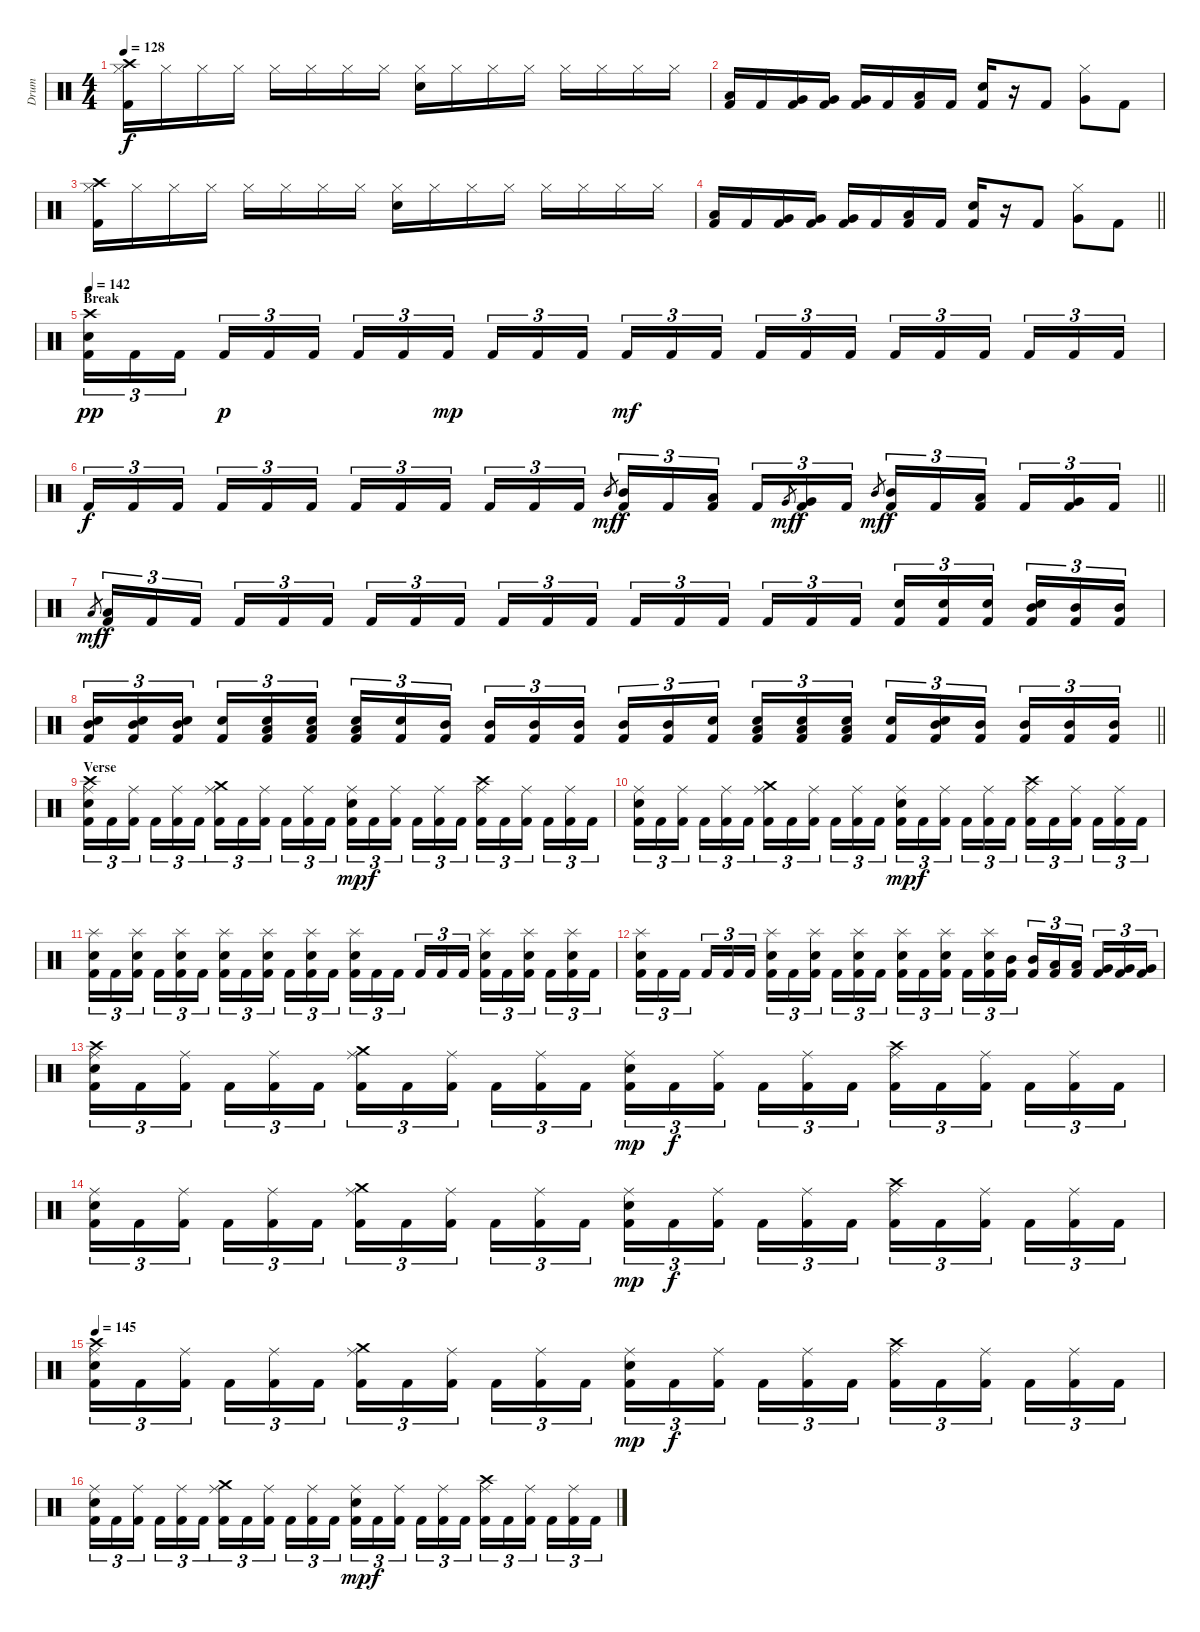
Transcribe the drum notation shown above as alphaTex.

\track ("Drum" "Drum") {instrument percussion}
\staff {score}
\articulation defaults
\ts (4 4)
\tempo 128
\clef neutral
\ks c
("Crash high (hit)" "Hi-Hat (closed)" "Kick (hit) 2").16{dy f} "Hi-Hat (closed)".16 "Hi-Hat (closed)".16 "Hi-Hat (closed)".16 "Hi-Hat (closed)".16 "Hi-Hat (closed)".16 "Hi-Hat (closed)".16 "Hi-Hat (closed)".16 ("Hi-Hat (closed)" "Electric Snare (hit)").16 "Hi-Hat (closed)".16 "Hi-Hat (closed)".16 "Hi-Hat (closed)".16 "Hi-Hat (closed)".16 "Hi-Hat (closed)".16 "Hi-Hat (closed)".16 "Hi-Hat (closed)".16 |
("Low Tom (hit)" "Kick (hit) 2").16 "Kick (hit) 2".16 ("Very Low Tom (hit)" "Kick (hit) 2").16 ("Very Low Tom (hit)" "Kick (hit) 2").16 ("Very Low Tom (hit)" "Kick (hit) 2").16 "Kick (hit) 2".16 ("Low Floor Tom (hit)" "Kick (hit) 2").16 "Kick (hit) 2".16 ("Electric Snare (hit)" "Kick (hit) 2").16 r.16 "Kick (hit) 2".8 ("Hi-Hat (closed)" "Very Low Tom (hit)").8 "Kick (hit) 2".8 |
("Crash high (hit)" "Hi-Hat (closed)" "Kick (hit) 2").16 "Hi-Hat (closed)".16 "Hi-Hat (closed)".16 "Hi-Hat (closed)".16 "Hi-Hat (closed)".16 "Hi-Hat (closed)".16 "Hi-Hat (closed)".16 "Hi-Hat (closed)".16 ("Hi-Hat (closed)" "Electric Snare (hit)").16 "Hi-Hat (closed)".16 "Hi-Hat (closed)".16 "Hi-Hat (closed)".16 "Hi-Hat (closed)".16 "Hi-Hat (closed)".16 "Hi-Hat (closed)".16 "Hi-Hat (closed)".16 |
\barLineRight lightlight
("Low Tom (hit)" "Kick (hit) 2").16 "Kick (hit) 2".16 ("Very Low Tom (hit)" "Kick (hit) 2").16 ("Very Low Tom (hit)" "Kick (hit) 2").16 ("Very Low Tom (hit)" "Kick (hit) 2").16 "Kick (hit) 2".16 ("Low Floor Tom (hit)" "Kick (hit) 2").16 "Kick (hit) 2".16 ("Electric Snare (hit)" "Kick (hit) 2").16 r.16 "Kick (hit) 2".8 ("Hi-Hat (closed)" "Very Low Tom (hit)").8 "Kick (hit) 2".8 |
\section ("" "Break")
\tempo 142
("Crash high (hit)" "Electric Snare (hit)" "Kick (hit) 2").16{tu (3 2) dy pp} "Kick (hit) 2".16{tu (3 2)} "Kick (hit) 2".16{tu (3 2) beam splitsecondary} "Kick (hit) 2".16{tu (3 2) dy p} "Kick (hit) 2".16{tu (3 2)} "Kick (hit) 2".16{tu (3 2)} "Kick (hit) 2".16{tu (3 2)} "Kick (hit) 2".16{tu (3 2)} "Kick (hit) 2".16{tu (3 2) dy mp beam splitsecondary} "Kick (hit) 2".16{tu (3 2)} "Kick (hit) 2".16{tu (3 2)} "Kick (hit) 2".16{tu (3 2)} "Kick (hit) 2".16{tu (3 2) dy mf} "Kick (hit) 2".16{tu (3 2)} "Kick (hit) 2".16{tu (3 2) beam splitsecondary} "Kick (hit) 2".16{tu (3 2)} "Kick (hit) 2".16{tu (3 2)} "Kick (hit) 2".16{tu (3 2)} "Kick (hit) 2".16{tu (3 2)} "Kick (hit) 2".16{tu (3 2)} "Kick (hit) 2".16{tu (3 2) beam splitsecondary} "Kick (hit) 2".16{tu (3 2)} "Kick (hit) 2".16{tu (3 2)} "Kick (hit) 2".16{tu (3 2)} |
\barLineRight lightlight "Kick (hit) 2".16{tu (3 2) dy f} "Kick (hit) 2".16{tu (3 2)} "Kick (hit) 2".16{tu (3 2) beam splitsecondary} "Kick (hit) 2".16{tu (3 2)} "Kick (hit) 2".16{tu (3 2)} "Kick (hit) 2".16{tu (3 2)} "Kick (hit) 2".16{tu (3 2)} "Kick (hit) 2".16{tu (3 2)} "Kick (hit) 2".16{tu (3 2) beam splitsecondary} "Kick (hit) 2".16{tu (3 2)} "Kick (hit) 2".16{tu (3 2)} "Kick (hit) 2".16{tu (3 2)} "Mid Tom (hit)".8{gr dy mf}
("Mid Tom (hit)" "Kick (hit) 2").16{tu (3 2) dy f} "Kick (hit) 2".16{tu (3 2)} ("Low Tom (hit)" "Kick (hit) 2").16{tu (3 2) beam splitsecondary} "Kick (hit) 2".16{tu (3 2)} "Very Low Tom (hit)".8{gr dy mf} ("Very Low Tom (hit)" "Kick (hit) 2").16{tu (3 2) dy f} "Kick (hit) 2".16{tu (3 2)} "Mid Tom (hit)".8{gr dy mf} ("Mid Tom (hit)" "Kick (hit) 2").16{tu (3 2) dy f} "Kick (hit) 2".16{tu (3 2)} ("Low Tom (hit)" "Kick (hit) 2").16{tu (3 2) beam splitsecondary} "Kick (hit) 2".16{tu (3 2)} ("Very Low Tom (hit)" "Kick (hit) 2").16{tu (3 2)} "Kick (hit) 2".16{tu (3 2)} |
"Low Floor Tom (hit)".8{gr dy mf} ("Low Floor Tom (hit)" "Kick (hit) 2").16{tu (3 2) dy f} "Kick (hit) 2".16{tu (3 2)} "Kick (hit) 2".16{tu (3 2) beam splitsecondary} "Kick (hit) 2".16{tu (3 2)} "Kick (hit) 2".16{tu (3 2)} "Kick (hit) 2".16{tu (3 2)} "Kick (hit) 2".16{tu (3 2)} "Kick (hit) 2".16{tu (3 2)} "Kick (hit) 2".16{tu (3 2) beam splitsecondary} "Kick (hit) 2".16{tu (3 2)} "Kick (hit) 2".16{tu (3 2)} "Kick (hit) 2".16{tu (3 2)} "Kick (hit) 2".16{tu (3 2)} "Kick (hit) 2".16{tu (3 2)} "Kick (hit) 2".16{tu (3 2) beam splitsecondary} "Kick (hit) 2".16{tu (3 2)} "Kick (hit) 2".16{tu (3 2)} "Kick (hit) 2".16{tu (3 2)} ("Electric Snare (hit)" "Kick (hit) 2").16{tu (3 2)} ("Electric Snare (hit)" "Kick (hit) 2").16{tu (3 2)} ("Electric Snare (hit)" "Kick (hit) 2").16{tu (3 2) beam splitsecondary} ("Mid Tom (hit)" "Electric Snare (hit)" "Kick (hit) 2").16{tu (3 2)} ("Mid Tom (hit)" "Kick (hit) 2").16{tu (3 2)} ("Mid Tom (hit)" "Kick (hit) 2").16{tu (3 2)} |
\barLineRight lightlight
("Mid Tom (hit)" "Electric Snare (hit)" "Kick (hit) 2").16{tu (3 2)} ("Mid Tom (hit)" "Electric Snare (hit)" "Kick (hit) 2").16{tu (3 2)} ("Mid Tom (hit)" "Electric Snare (hit)" "Kick (hit) 2").16{tu (3 2) beam splitsecondary} ("Electric Snare (hit)" "Kick (hit) 2").16{tu (3 2)} ("Low Tom (hit)" "Electric Snare (hit)" "Kick (hit) 2").16{tu (3 2)} ("Low Tom (hit)" "Electric Snare (hit)" "Kick (hit) 2").16{tu (3 2)} ("Low Tom (hit)" "Electric Snare (hit)" "Kick (hit) 2").16{tu (3 2)} ("Electric Snare (hit)" "Kick (hit) 2").16{tu (3 2)} ("Mid Tom (hit)" "Kick (hit) 2").16{tu (3 2) beam splitsecondary} ("Mid Tom (hit)" "Kick (hit) 2").16{tu (3 2)} ("Mid Tom (hit)" "Kick (hit) 2").16{tu (3 2)} ("Mid Tom (hit)" "Kick (hit) 2").16{tu (3 2)} ("Mid Tom (hit)" "Kick (hit) 2").16{tu (3 2)} ("Mid Tom (hit)" "Kick (hit) 2").16{tu (3 2)} ("Electric Snare (hit)" "Kick (hit) 2").16{tu (3 2) beam splitsecondary} ("Low Tom (hit)" "Electric Snare (hit)" "Kick (hit) 2").16{tu (3 2)} ("Low Tom (hit)" "Electric Snare (hit)" "Kick (hit) 2").16{tu (3 2)} ("Low Tom (hit)" "Electric Snare (hit)" "Kick (hit) 2").16{tu (3 2)} ("Electric Snare (hit)" "Kick (hit) 2").16{tu (3 2)} ("Mid Tom (hit)" "Electric Snare (hit)" "Kick (hit) 2").16{tu (3 2)} ("Mid Tom (hit)" "Kick (hit) 2").16{tu (3 2) beam splitsecondary} ("Mid Tom (hit)" "Kick (hit) 2").16{tu (3 2)} ("Mid Tom (hit)" "Kick (hit) 2").16{tu (3 2)} ("Mid Tom (hit)" "Kick (hit) 2").16{tu (3 2)} |
\section ("" "Verse")
("Crash high (hit)" "Ride (middle)" "Electric Snare (hit)" "Kick (hit) 2").16{tu (3 2)} "Kick (hit) 2".16{tu (3 2)} ("Ride (middle)" "Kick (hit) 2").16{tu (3 2) beam splitsecondary} "Kick (hit) 2".16{tu (3 2)} ("Ride (middle)" "Kick (hit) 2").16{tu (3 2)} "Kick (hit) 2".16{tu (3 2)} ("Crash medium (hit)" "Ride (middle)" "Kick (hit) 2").16{tu (3 2)} "Kick (hit) 2".16{tu (3 2)} ("Ride (middle)" "Kick (hit) 2").16{tu (3 2) beam splitsecondary} "Kick (hit) 2".16{tu (3 2)} ("Ride (middle)" "Kick (hit) 2").16{tu (3 2)} "Kick (hit) 2".16{tu (3 2)} ("Ride (middle)" "Electric Snare (hit)" "Kick (hit) 2").16{tu (3 2) dy mp} "Kick (hit) 2".16{tu (3 2) dy f} ("Ride (middle)" "Kick (hit) 2").16{tu (3 2) beam splitsecondary} "Kick (hit) 2".16{tu (3 2)} ("Ride (middle)" "Kick (hit) 2").16{tu (3 2)} "Kick (hit) 2".16{tu (3 2)} ("Crash high (hit)" "Ride (middle)" "Kick (hit) 2").16{tu (3 2)} "Kick (hit) 2".16{tu (3 2)} ("Ride (middle)" "Kick (hit) 2").16{tu (3 2) beam splitsecondary} "Kick (hit) 2".16{tu (3 2)} ("Ride (middle)" "Kick (hit) 2").16{tu (3 2)} "Kick (hit) 2".16{tu (3 2)} |
("Ride (middle)" "Electric Snare (hit)" "Kick (hit) 2").16{tu (3 2)} "Kick (hit) 2".16{tu (3 2)} ("Ride (middle)" "Kick (hit) 2").16{tu (3 2) beam splitsecondary} "Kick (hit) 2".16{tu (3 2)} ("Ride (middle)" "Kick (hit) 2").16{tu (3 2)} "Kick (hit) 2".16{tu (3 2)} ("Crash medium (hit)" "Ride (middle)" "Kick (hit) 2").16{tu (3 2)} "Kick (hit) 2".16{tu (3 2)} ("Ride (middle)" "Kick (hit) 2").16{tu (3 2) beam splitsecondary} "Kick (hit) 2".16{tu (3 2)} ("Ride (middle)" "Kick (hit) 2").16{tu (3 2)} "Kick (hit) 2".16{tu (3 2)} ("Ride (middle)" "Electric Snare (hit)" "Kick (hit) 2").16{tu (3 2) dy mp} "Kick (hit) 2".16{tu (3 2) dy f} ("Ride (middle)" "Kick (hit) 2").16{tu (3 2) beam splitsecondary} "Kick (hit) 2".16{tu (3 2)} ("Ride (middle)" "Kick (hit) 2").16{tu (3 2)} "Kick (hit) 2".16{tu (3 2)} ("Crash high (hit)" "Ride (middle)" "Kick (hit) 2").16{tu (3 2)} "Kick (hit) 2".16{tu (3 2)} ("Ride (middle)" "Kick (hit) 2").16{tu (3 2) beam splitsecondary} "Kick (hit) 2".16{tu (3 2)} ("Ride (middle)" "Kick (hit) 2").16{tu (3 2)} "Kick (hit) 2".16{tu (3 2)} |
("Splash (hit)" "Electric Snare (hit)" "Kick (hit) 2").16{tu (3 2)} "Kick (hit) 2".16{tu (3 2)} ("Splash (hit)" "Electric Snare (hit)" "Kick (hit) 2").16{tu (3 2) beam splitsecondary} "Kick (hit) 2".16{tu (3 2)} ("Splash (hit)" "Electric Snare (hit)" "Kick (hit) 2").16{tu (3 2)} "Kick (hit) 2".16{tu (3 2)} ("Splash (hit)" "Electric Snare (hit)" "Kick (hit) 2").16{tu (3 2)} "Kick (hit) 2".16{tu (3 2)} ("Splash (hit)" "Electric Snare (hit)" "Kick (hit) 2").16{tu (3 2) beam splitsecondary} "Kick (hit) 2".16{tu (3 2)} ("Splash (hit)" "Electric Snare (hit)" "Kick (hit) 2").16{tu (3 2)} "Kick (hit) 2".16{tu (3 2)} ("Splash (hit)" "Electric Snare (hit)" "Kick (hit) 2").16{tu (3 2)} "Kick (hit) 2".16{tu (3 2)} "Kick (hit) 2".16{tu (3 2) beam splitsecondary} "Kick (hit) 2".16{tu (3 2)} "Kick (hit) 2".16{tu (3 2)} "Kick (hit) 2".16{tu (3 2)} ("Splash (hit)" "Electric Snare (hit)" "Kick (hit) 2").16{tu (3 2)} "Kick (hit) 2".16{tu (3 2)} ("Splash (hit)" "Electric Snare (hit)" "Kick (hit) 2").16{tu (3 2) beam splitsecondary} "Kick (hit) 2".16{tu (3 2)} ("Splash (hit)" "Electric Snare (hit)" "Kick (hit) 2").16{tu (3 2)} "Kick (hit) 2".16{tu (3 2)} |
("Splash (hit)" "Electric Snare (hit)" "Kick (hit) 2").16{tu (3 2)} "Kick (hit) 2".16{tu (3 2)} "Kick (hit) 2".16{tu (3 2) beam splitsecondary} "Kick (hit) 2".16{tu (3 2)} "Kick (hit) 2".16{tu (3 2)} "Kick (hit) 2".16{tu (3 2)} ("Splash (hit)" "Electric Snare (hit)" "Kick (hit) 2").16{tu (3 2)} "Kick (hit) 2".16{tu (3 2)} ("Splash (hit)" "Electric Snare (hit)" "Kick (hit) 2").16{tu (3 2) beam splitsecondary} "Kick (hit) 2".16{tu (3 2)} ("Splash (hit)" "Electric Snare (hit)" "Kick (hit) 2").16{tu (3 2)} "Kick (hit) 2".16{tu (3 2)} ("Splash (hit)" "Electric Snare (hit)" "Kick (hit) 2").16{tu (3 2)} "Kick (hit) 2".16{tu (3 2)} ("Splash (hit)" "Electric Snare (hit)" "Kick (hit) 2").16{tu (3 2) beam splitsecondary} "Kick (hit) 2".16{tu (3 2)} ("Splash (hit)" "Electric Snare (hit)" "Kick (hit) 2").16{tu (3 2)} ("Mid Tom (hit)" "Kick (hit) 2").16{tu (3 2)} ("Mid Tom (hit)" "Kick (hit) 2").16{tu (3 2)} ("Low Tom (hit)" "Kick (hit) 2").16{tu (3 2)} ("Low Tom (hit)" "Kick (hit) 2").16{tu (3 2) beam splitsecondary} ("Very Low Tom (hit)" "Kick (hit) 2").16{tu (3 2)} ("Very Low Tom (hit)" "Kick (hit) 2").16{tu (3 2)} ("Very Low Tom (hit)" "Kick (hit) 2").16{tu (3 2)} |
("Crash high (hit)" "Ride (middle)" "Electric Snare (hit)" "Kick (hit) 2").16{tu (3 2)} "Kick (hit) 2".16{tu (3 2)} ("Ride (middle)" "Kick (hit) 2").16{tu (3 2) beam splitsecondary} "Kick (hit) 2".16{tu (3 2)} ("Ride (middle)" "Kick (hit) 2").16{tu (3 2)} "Kick (hit) 2".16{tu (3 2)} ("Crash medium (hit)" "Ride (middle)" "Kick (hit) 2").16{tu (3 2)} "Kick (hit) 2".16{tu (3 2)} ("Ride (middle)" "Kick (hit) 2").16{tu (3 2) beam splitsecondary} "Kick (hit) 2".16{tu (3 2)} ("Ride (middle)" "Kick (hit) 2").16{tu (3 2)} "Kick (hit) 2".16{tu (3 2)} ("Ride (middle)" "Electric Snare (hit)" "Kick (hit) 2").16{tu (3 2) dy mp} "Kick (hit) 2".16{tu (3 2) dy f} ("Ride (middle)" "Kick (hit) 2").16{tu (3 2) beam splitsecondary} "Kick (hit) 2".16{tu (3 2)} ("Ride (middle)" "Kick (hit) 2").16{tu (3 2)} "Kick (hit) 2".16{tu (3 2)} ("Crash high (hit)" "Ride (middle)" "Kick (hit) 2").16{tu (3 2)} "Kick (hit) 2".16{tu (3 2)} ("Ride (middle)" "Kick (hit) 2").16{tu (3 2) beam splitsecondary} "Kick (hit) 2".16{tu (3 2)} ("Ride (middle)" "Kick (hit) 2").16{tu (3 2)} "Kick (hit) 2".16{tu (3 2)} |
("Ride (middle)" "Electric Snare (hit)" "Kick (hit) 2").16{tu (3 2)} "Kick (hit) 2".16{tu (3 2)} ("Ride (middle)" "Kick (hit) 2").16{tu (3 2) beam splitsecondary} "Kick (hit) 2".16{tu (3 2)} ("Ride (middle)" "Kick (hit) 2").16{tu (3 2)} "Kick (hit) 2".16{tu (3 2)} ("Crash medium (hit)" "Ride (middle)" "Kick (hit) 2").16{tu (3 2)} "Kick (hit) 2".16{tu (3 2)} ("Ride (middle)" "Kick (hit) 2").16{tu (3 2) beam splitsecondary} "Kick (hit) 2".16{tu (3 2)} ("Ride (middle)" "Kick (hit) 2").16{tu (3 2)} "Kick (hit) 2".16{tu (3 2)} ("Ride (middle)" "Electric Snare (hit)" "Kick (hit) 2").16{tu (3 2) dy mp} "Kick (hit) 2".16{tu (3 2) dy f} ("Ride (middle)" "Kick (hit) 2").16{tu (3 2) beam splitsecondary} "Kick (hit) 2".16{tu (3 2)} ("Ride (middle)" "Kick (hit) 2").16{tu (3 2)} "Kick (hit) 2".16{tu (3 2)} ("Crash high (hit)" "Ride (middle)" "Kick (hit) 2").16{tu (3 2)} "Kick (hit) 2".16{tu (3 2)} ("Ride (middle)" "Kick (hit) 2").16{tu (3 2) beam splitsecondary} "Kick (hit) 2".16{tu (3 2)} ("Ride (middle)" "Kick (hit) 2").16{tu (3 2)} "Kick (hit) 2".16{tu (3 2)} |
\tempo 145
("Crash high (hit)" "Ride (middle)" "Electric Snare (hit)" "Kick (hit) 2").16{tu (3 2)} "Kick (hit) 2".16{tu (3 2)} ("Ride (middle)" "Kick (hit) 2").16{tu (3 2) beam splitsecondary} "Kick (hit) 2".16{tu (3 2)} ("Ride (middle)" "Kick (hit) 2").16{tu (3 2)} "Kick (hit) 2".16{tu (3 2)} ("Crash medium (hit)" "Ride (middle)" "Kick (hit) 2").16{tu (3 2)} "Kick (hit) 2".16{tu (3 2)} ("Ride (middle)" "Kick (hit) 2").16{tu (3 2) beam splitsecondary} "Kick (hit) 2".16{tu (3 2)} ("Ride (middle)" "Kick (hit) 2").16{tu (3 2)} "Kick (hit) 2".16{tu (3 2)} ("Ride (middle)" "Electric Snare (hit)" "Kick (hit) 2").16{tu (3 2) dy mp} "Kick (hit) 2".16{tu (3 2) dy f} ("Ride (middle)" "Kick (hit) 2").16{tu (3 2) beam splitsecondary} "Kick (hit) 2".16{tu (3 2)} ("Ride (middle)" "Kick (hit) 2").16{tu (3 2)} "Kick (hit) 2".16{tu (3 2)} ("Crash high (hit)" "Ride (middle)" "Kick (hit) 2").16{tu (3 2)} "Kick (hit) 2".16{tu (3 2)} ("Ride (middle)" "Kick (hit) 2").16{tu (3 2) beam splitsecondary} "Kick (hit) 2".16{tu (3 2)} ("Ride (middle)" "Kick (hit) 2").16{tu (3 2)} "Kick (hit) 2".16{tu (3 2)} |
("Ride (middle)" "Electric Snare (hit)" "Kick (hit) 2").16{tu (3 2)} "Kick (hit) 2".16{tu (3 2)} ("Ride (middle)" "Kick (hit) 2").16{tu (3 2) beam splitsecondary} "Kick (hit) 2".16{tu (3 2)} ("Ride (middle)" "Kick (hit) 2").16{tu (3 2)} "Kick (hit) 2".16{tu (3 2)} ("Crash medium (hit)" "Ride (middle)" "Kick (hit) 2").16{tu (3 2)} "Kick (hit) 2".16{tu (3 2)} ("Ride (middle)" "Kick (hit) 2").16{tu (3 2) beam splitsecondary} "Kick (hit) 2".16{tu (3 2)} ("Ride (middle)" "Kick (hit) 2").16{tu (3 2)} "Kick (hit) 2".16{tu (3 2)} ("Ride (middle)" "Electric Snare (hit)" "Kick (hit) 2").16{tu (3 2) dy mp} "Kick (hit) 2".16{tu (3 2) dy f} ("Ride (middle)" "Kick (hit) 2").16{tu (3 2) beam splitsecondary} "Kick (hit) 2".16{tu (3 2)} ("Ride (middle)" "Kick (hit) 2").16{tu (3 2)} "Kick (hit) 2".16{tu (3 2)} ("Crash high (hit)" "Ride (middle)" "Kick (hit) 2").16{tu (3 2)} "Kick (hit) 2".16{tu (3 2)} ("Ride (middle)" "Kick (hit) 2").16{tu (3 2) beam splitsecondary} "Kick (hit) 2".16{tu (3 2)} ("Ride (middle)" "Kick (hit) 2").16{tu (3 2)} "Kick (hit) 2".16{tu (3 2)}
